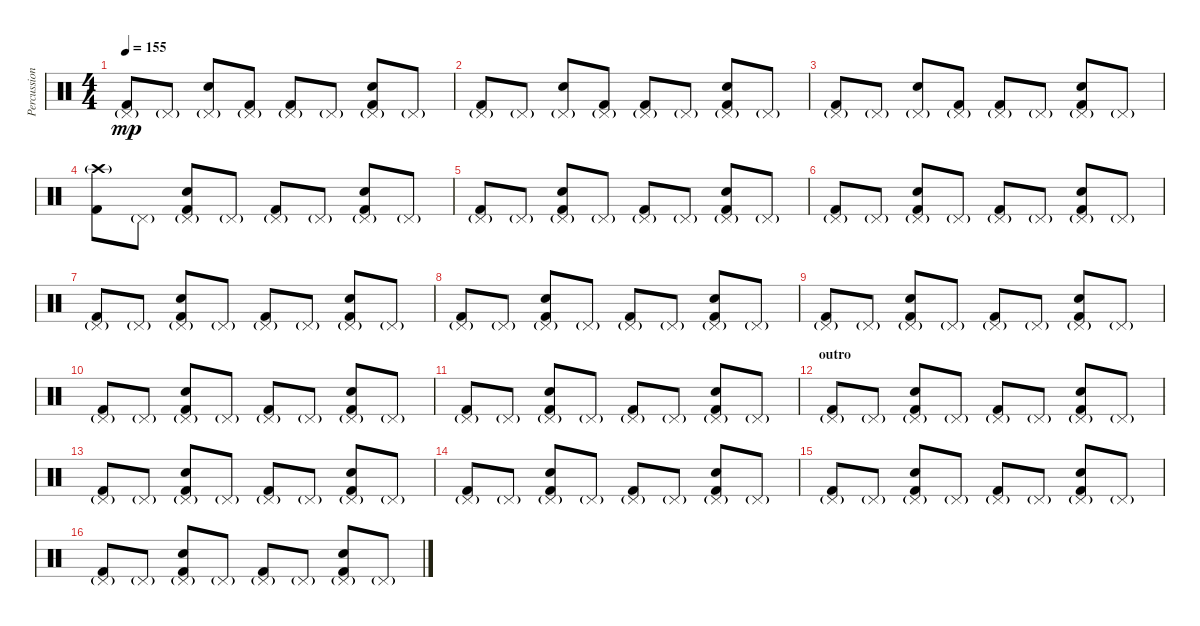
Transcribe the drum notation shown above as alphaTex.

\track ("Percussions" "Percussion") {instrument percussion}
\staff {score}
\articulation defaults
\ts (4 4)
\tempo 155
\clef neutral
\ks c
("Pedal Hi-Hat (hit)"{g} "Kick (hit) 2").8{dy mp} "Pedal Hi-Hat (hit)"{g}.8 ("Pedal Hi-Hat (hit)"{g} "Snare (hit) 2").8 ("Pedal Hi-Hat (hit)"{g} "Kick (hit) 2").8 ("Pedal Hi-Hat (hit)"{g} "Kick (hit) 2").8 "Pedal Hi-Hat (hit)"{g}.8 ("Pedal Hi-Hat (hit)"{g} "Snare (hit) 2" "Kick (hit) 2").8 "Pedal Hi-Hat (hit)"{g}.8 |
("Pedal Hi-Hat (hit)"{g} "Kick (hit) 2").8 "Pedal Hi-Hat (hit)"{g}.8 ("Pedal Hi-Hat (hit)"{g} "Snare (hit) 2").8 ("Pedal Hi-Hat (hit)"{g} "Kick (hit) 2").8 ("Pedal Hi-Hat (hit)"{g} "Kick (hit) 2").8 "Pedal Hi-Hat (hit)"{g}.8 ("Pedal Hi-Hat (hit)"{g} "Snare (hit) 2" "Kick (hit) 2").8 "Pedal Hi-Hat (hit)"{g}.8 |
("Pedal Hi-Hat (hit)"{g} "Kick (hit) 2").8 "Pedal Hi-Hat (hit)"{g}.8 ("Pedal Hi-Hat (hit)"{g} "Snare (hit) 2").8 ("Pedal Hi-Hat (hit)"{g} "Kick (hit) 2").8 ("Pedal Hi-Hat (hit)"{g} "Kick (hit) 2").8 "Pedal Hi-Hat (hit)"{g}.8 ("Pedal Hi-Hat (hit)"{g} "Snare (hit) 2" "Kick (hit) 2").8 "Pedal Hi-Hat (hit)"{g}.8 |
("Crash high (hit)"{g} "Kick (hit) 2").8 "Pedal Hi-Hat (hit)"{g}.8 ("Pedal Hi-Hat (hit)"{g} "Snare (hit) 2" "Kick (hit) 2").8 "Pedal Hi-Hat (hit)"{g}.8 ("Pedal Hi-Hat (hit)"{g} "Kick (hit) 2").8 "Pedal Hi-Hat (hit)"{g}.8 ("Pedal Hi-Hat (hit)"{g} "Snare (hit) 2" "Kick (hit) 2").8 "Pedal Hi-Hat (hit)"{g}.8 |
("Pedal Hi-Hat (hit)"{g} "Kick (hit) 2").8 "Pedal Hi-Hat (hit)"{g}.8 ("Pedal Hi-Hat (hit)"{g} "Snare (hit) 2" "Kick (hit) 2").8 "Pedal Hi-Hat (hit)"{g}.8 ("Pedal Hi-Hat (hit)"{g} "Kick (hit) 2").8 "Pedal Hi-Hat (hit)"{g}.8 ("Pedal Hi-Hat (hit)"{g} "Snare (hit) 2" "Kick (hit) 2").8 "Pedal Hi-Hat (hit)"{g}.8 |
("Pedal Hi-Hat (hit)"{g} "Kick (hit) 2").8 "Pedal Hi-Hat (hit)"{g}.8 ("Pedal Hi-Hat (hit)"{g} "Snare (hit) 2" "Kick (hit) 2").8 "Pedal Hi-Hat (hit)"{g}.8 ("Pedal Hi-Hat (hit)"{g} "Kick (hit) 2").8 "Pedal Hi-Hat (hit)"{g}.8 ("Pedal Hi-Hat (hit)"{g} "Snare (hit) 2" "Kick (hit) 2").8 "Pedal Hi-Hat (hit)"{g}.8 |
("Pedal Hi-Hat (hit)"{g} "Kick (hit) 2").8 "Pedal Hi-Hat (hit)"{g}.8 ("Pedal Hi-Hat (hit)"{g} "Snare (hit) 2" "Kick (hit) 2").8 "Pedal Hi-Hat (hit)"{g}.8 ("Pedal Hi-Hat (hit)"{g} "Kick (hit) 2").8 "Pedal Hi-Hat (hit)"{g}.8 ("Pedal Hi-Hat (hit)"{g} "Snare (hit) 2" "Kick (hit) 2").8 "Pedal Hi-Hat (hit)"{g}.8 |
("Pedal Hi-Hat (hit)"{g} "Kick (hit) 2").8 "Pedal Hi-Hat (hit)"{g}.8 ("Pedal Hi-Hat (hit)"{g} "Snare (hit) 2" "Kick (hit) 2").8 "Pedal Hi-Hat (hit)"{g}.8 ("Pedal Hi-Hat (hit)"{g} "Kick (hit) 2").8 "Pedal Hi-Hat (hit)"{g}.8 ("Pedal Hi-Hat (hit)"{g} "Snare (hit) 2" "Kick (hit) 2").8 "Pedal Hi-Hat (hit)"{g}.8 |
("Pedal Hi-Hat (hit)"{g} "Kick (hit) 2").8 "Pedal Hi-Hat (hit)"{g}.8 ("Pedal Hi-Hat (hit)"{g} "Snare (hit) 2" "Kick (hit) 2").8 "Pedal Hi-Hat (hit)"{g}.8 ("Pedal Hi-Hat (hit)"{g} "Kick (hit) 2").8 "Pedal Hi-Hat (hit)"{g}.8 ("Pedal Hi-Hat (hit)"{g} "Snare (hit) 2" "Kick (hit) 2").8 "Pedal Hi-Hat (hit)"{g}.8 |
("Pedal Hi-Hat (hit)"{g} "Kick (hit) 2").8 "Pedal Hi-Hat (hit)"{g}.8 ("Pedal Hi-Hat (hit)"{g} "Snare (hit) 2" "Kick (hit) 2").8 "Pedal Hi-Hat (hit)"{g}.8 ("Pedal Hi-Hat (hit)"{g} "Kick (hit) 2").8 "Pedal Hi-Hat (hit)"{g}.8 ("Pedal Hi-Hat (hit)"{g} "Snare (hit) 2" "Kick (hit) 2").8 "Pedal Hi-Hat (hit)"{g}.8 |
("Pedal Hi-Hat (hit)"{g} "Kick (hit) 2").8 "Pedal Hi-Hat (hit)"{g}.8 ("Pedal Hi-Hat (hit)"{g} "Snare (hit) 2" "Kick (hit) 2").8 "Pedal Hi-Hat (hit)"{g}.8 ("Pedal Hi-Hat (hit)"{g} "Kick (hit) 2").8 "Pedal Hi-Hat (hit)"{g}.8 ("Pedal Hi-Hat (hit)"{g} "Snare (hit) 2" "Kick (hit) 2").8 "Pedal Hi-Hat (hit)"{g}.8 |
\section ("" "outro")
("Pedal Hi-Hat (hit)"{g} "Kick (hit) 2").8 "Pedal Hi-Hat (hit)"{g}.8 ("Pedal Hi-Hat (hit)"{g} "Snare (hit) 2" "Kick (hit) 2").8 "Pedal Hi-Hat (hit)"{g}.8 ("Pedal Hi-Hat (hit)"{g} "Kick (hit) 2").8 "Pedal Hi-Hat (hit)"{g}.8 ("Pedal Hi-Hat (hit)"{g} "Snare (hit) 2" "Kick (hit) 2").8 "Pedal Hi-Hat (hit)"{g}.8 |
("Pedal Hi-Hat (hit)"{g} "Kick (hit) 2").8 "Pedal Hi-Hat (hit)"{g}.8 ("Pedal Hi-Hat (hit)"{g} "Snare (hit) 2" "Kick (hit) 2").8 "Pedal Hi-Hat (hit)"{g}.8 ("Pedal Hi-Hat (hit)"{g} "Kick (hit) 2").8 "Pedal Hi-Hat (hit)"{g}.8 ("Pedal Hi-Hat (hit)"{g} "Snare (hit) 2" "Kick (hit) 2").8 "Pedal Hi-Hat (hit)"{g}.8 |
("Pedal Hi-Hat (hit)"{g} "Kick (hit) 2").8 "Pedal Hi-Hat (hit)"{g}.8 ("Pedal Hi-Hat (hit)"{g} "Snare (hit) 2" "Kick (hit) 2").8 "Pedal Hi-Hat (hit)"{g}.8 ("Pedal Hi-Hat (hit)"{g} "Kick (hit) 2").8 "Pedal Hi-Hat (hit)"{g}.8 ("Pedal Hi-Hat (hit)"{g} "Snare (hit) 2" "Kick (hit) 2").8 "Pedal Hi-Hat (hit)"{g}.8 |
("Pedal Hi-Hat (hit)"{g} "Kick (hit) 2").8 "Pedal Hi-Hat (hit)"{g}.8 ("Pedal Hi-Hat (hit)"{g} "Snare (hit) 2" "Kick (hit) 2").8 "Pedal Hi-Hat (hit)"{g}.8 ("Pedal Hi-Hat (hit)"{g} "Kick (hit) 2").8 "Pedal Hi-Hat (hit)"{g}.8 ("Pedal Hi-Hat (hit)"{g} "Snare (hit) 2" "Kick (hit) 2").8 "Pedal Hi-Hat (hit)"{g}.8 |
("Pedal Hi-Hat (hit)"{g} "Kick (hit) 2").8 "Pedal Hi-Hat (hit)"{g}.8 ("Pedal Hi-Hat (hit)"{g} "Snare (hit) 2" "Kick (hit) 2").8 "Pedal Hi-Hat (hit)"{g}.8 ("Pedal Hi-Hat (hit)"{g} "Kick (hit) 2").8 "Pedal Hi-Hat (hit)"{g}.8 ("Pedal Hi-Hat (hit)"{g} "Snare (hit) 2" "Kick (hit) 2").8 "Pedal Hi-Hat (hit)"{g}.8
